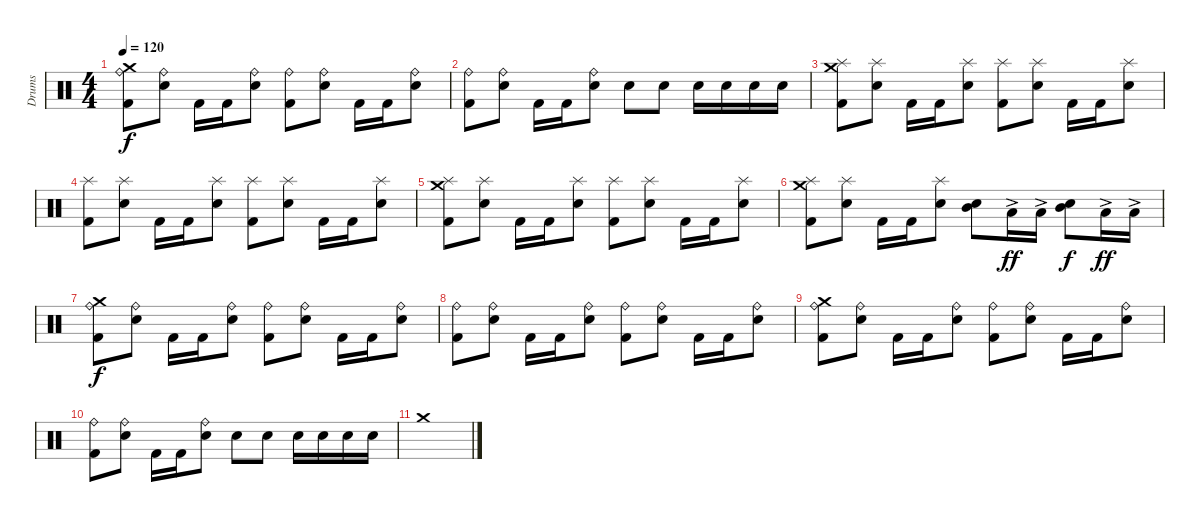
\track ("Drums" "Drums") {instrument percussion}
\staff {score}
\articulation defaults
\ts (4 4)
\tempo 120
\clef neutral
\ks c
("Ride (bell)" "Crash medium (hit)" "Kick (hit) 2").8{dy f} ("Ride (bell)" "Snare (hit) 2").8 "Kick (hit) 2".16 "Kick (hit) 2".16 ("Ride (bell)" "Snare (hit) 2").8 ("Ride (bell)" "Kick (hit) 2").8 ("Ride (bell)" "Snare (hit) 2").8 "Kick (hit) 2".16 "Kick (hit) 2".16 ("Ride (bell)" "Snare (hit) 2").8 |
("Ride (bell)" "Kick (hit) 2").8 ("Ride (bell)" "Snare (hit) 2").8 "Kick (hit) 2".16 "Kick (hit) 2".16 ("Ride (bell)" "Snare (hit) 2").8 "Snare (hit) 2".8 "Snare (hit) 2".8 "Snare (hit) 2".16 "Snare (hit) 2".16 "Snare (hit) 2".16 "Snare (hit) 2".16 |
("Splash (hit)" "Crash medium (hit)" "Kick (hit) 2").8 ("Splash (hit)" "Snare (hit) 2").8 "Kick (hit) 2".16 "Kick (hit) 2".16 ("Splash (hit)" "Snare (hit) 2").8 ("Splash (hit)" "Kick (hit) 2").8 ("Splash (hit)" "Snare (hit) 2").8 "Kick (hit) 2".16 "Kick (hit) 2".16 ("Splash (hit)" "Snare (hit) 2").8 |
("Splash (hit)" "Kick (hit) 2").8 ("Splash (hit)" "Snare (hit) 2").8 "Kick (hit) 2".16 "Kick (hit) 2".16 ("Splash (hit)" "Snare (hit) 2").8 ("Splash (hit)" "Kick (hit) 2").8 ("Splash (hit)" "Snare (hit) 2").8 "Kick (hit) 2".16 "Kick (hit) 2".16 ("Splash (hit)" "Snare (hit) 2").8 |
("Splash (hit)" "Crash medium (hit)" "Kick (hit) 2").8 ("Splash (hit)" "Snare (hit) 2").8 "Kick (hit) 2".16 "Kick (hit) 2".16 ("Splash (hit)" "Snare (hit) 2").8 ("Splash (hit)" "Kick (hit) 2").8 ("Splash (hit)" "Snare (hit) 2").8 "Kick (hit) 2".16 "Kick (hit) 2".16 ("Splash (hit)" "Snare (hit) 2").8 |
("Splash (hit)" "Crash medium (hit)" "Kick (hit) 2").8 ("Splash (hit)" "Snare (hit) 2").8 "Kick (hit) 2".16 "Kick (hit) 2".16 ("Splash (hit)" "Snare (hit) 2").8 ("Mid Tom (hit)" "Snare (hit) 2").8 "Low Tom (hit)"{ac}.16{dy ff} "Low Tom (hit)"{ac}.16 ("Mid Tom (hit)" "Snare (hit) 2").8{dy f} "Low Tom (hit)"{ac}.16{dy ff} "Low Tom (hit)"{ac}.16 |
("Ride (bell)" "Crash medium (hit)" "Kick (hit) 2").8{dy f} ("Ride (bell)" "Snare (hit) 2").8 "Kick (hit) 2".16 "Kick (hit) 2".16 ("Ride (bell)" "Snare (hit) 2").8 ("Ride (bell)" "Kick (hit) 2").8 ("Ride (bell)" "Snare (hit) 2").8 "Kick (hit) 2".16 "Kick (hit) 2".16 ("Ride (bell)" "Snare (hit) 2").8 |
("Ride (bell)" "Kick (hit) 2").8 ("Ride (bell)" "Snare (hit) 2").8 "Kick (hit) 2".16 "Kick (hit) 2".16 ("Ride (bell)" "Snare (hit) 2").8 ("Ride (bell)" "Kick (hit) 2").8 ("Ride (bell)" "Snare (hit) 2").8 "Kick (hit) 2".16 "Kick (hit) 2".16 ("Ride (bell)" "Snare (hit) 2").8 |
("Ride (bell)" "Crash medium (hit)" "Kick (hit) 2").8 ("Ride (bell)" "Snare (hit) 2").8 "Kick (hit) 2".16 "Kick (hit) 2".16 ("Ride (bell)" "Snare (hit) 2").8 ("Ride (bell)" "Kick (hit) 2").8 ("Ride (bell)" "Snare (hit) 2").8 "Kick (hit) 2".16 "Kick (hit) 2".16 ("Ride (bell)" "Snare (hit) 2").8 |
("Ride (bell)" "Kick (hit) 2").8 ("Ride (bell)" "Snare (hit) 2").8 "Kick (hit) 2".16 "Kick (hit) 2".16 ("Ride (bell)" "Snare (hit) 2").8 "Snare (hit) 2".8 "Snare (hit) 2".8 "Snare (hit) 2".16 "Snare (hit) 2".16 "Snare (hit) 2".16 "Snare (hit) 2".16 |
"Crash medium (hit)".1
